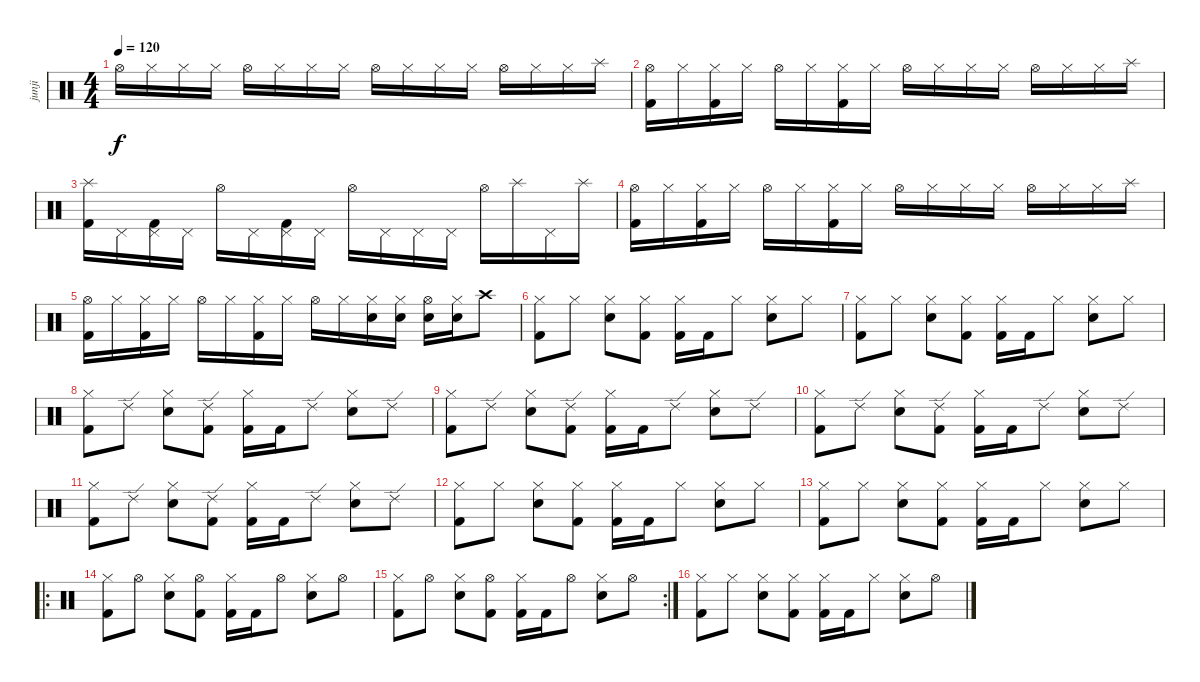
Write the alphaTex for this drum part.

\track ("junji" "junji") {instrument percussion}
\staff {score}
\articulation defaults
\ts (4 4)
\tempo 120
\clef neutral
\ks c "Hi-Hat (open)".16{dy f} "Hi-Hat (closed)".16 "Hi-Hat (closed)".16 "Hi-Hat (closed)".16 "Hi-Hat (open)".16 "Hi-Hat (closed)".16 "Hi-Hat (closed)".16 "Hi-Hat (closed)".16 "Hi-Hat (open)".16 "Hi-Hat (closed)".16 "Hi-Hat (closed)".16 "Hi-Hat (closed)".16 "Hi-Hat (open)".16 "Hi-Hat (closed)".16 "Hi-Hat (closed)".16 "Splash (hit)".16
|
("Hi-Hat (open)" "Kick (hit) 2").16 "Hi-Hat (closed)".16 ("Hi-Hat (closed)" "Kick (hit) 2").16 "Hi-Hat (closed)".16 "Hi-Hat (open)".16 "Hi-Hat (closed)".16 ("Hi-Hat (closed)" "Kick (hit) 2").16 "Hi-Hat (closed)".16 "Hi-Hat (open)".16 "Hi-Hat (closed)".16 "Hi-Hat (closed)".16 "Hi-Hat (closed)".16 "Hi-Hat (open)".16 "Hi-Hat (closed)".16 "Hi-Hat (closed)".16 "Splash (hit)".16 |
("Splash (hit)" "Kick (hit) 2").16 "Pedal Hi-Hat (hit)".16 ("Pedal Hi-Hat (hit)" "Kick (hit) 2").16 "Pedal Hi-Hat (hit)".16 "Hi-Hat (open)".16 "Pedal Hi-Hat (hit)".16 ("Pedal Hi-Hat (hit)" "Kick (hit) 2").16 "Pedal Hi-Hat (hit)".16 "Hi-Hat (open)".16 "Pedal Hi-Hat (hit)".16 "Pedal Hi-Hat (hit)".16 "Pedal Hi-Hat (hit)".16 "Hi-Hat (open)".16 "Splash (hit)".16 "Pedal Hi-Hat (hit)".16 "Splash (hit)".16 |
("Hi-Hat (open)" "Kick (hit) 2").16 "Hi-Hat (closed)".16 ("Hi-Hat (closed)" "Kick (hit) 2").16 "Hi-Hat (closed)".16 "Hi-Hat (open)".16 "Hi-Hat (closed)".16 ("Hi-Hat (closed)" "Kick (hit) 2").16 "Hi-Hat (closed)".16 "Hi-Hat (open)".16 "Hi-Hat (closed)".16 "Hi-Hat (closed)".16 "Hi-Hat (closed)".16 "Hi-Hat (open)".16 "Hi-Hat (closed)".16 "Hi-Hat (closed)".16 "Splash (hit)".16 |
("Hi-Hat (open)" "Kick (hit) 2").16 "Hi-Hat (closed)".16 ("Hi-Hat (closed)" "Kick (hit) 2").16 "Hi-Hat (closed)".16 "Hi-Hat (open)".16 "Hi-Hat (closed)".16 ("Hi-Hat (closed)" "Kick (hit) 2").16 "Hi-Hat (closed)".16 "Hi-Hat (open)".16 "Hi-Hat (closed)".16 ("Hi-Hat (closed)" "Snare (hit) 2").16 ("Hi-Hat (closed)" "Snare (hit) 2").16 ("Hi-Hat (open)" "Snare (hit) 2").16 ("Hi-Hat (closed)" "Snare (hit) 2").16 "Crash high (hit)".8 |
("Hi-Hat (closed)" "Kick (hit) 2").8 "Hi-Hat (closed)".8 ("Hi-Hat (closed)" "Snare (hit) 2").8 ("Hi-Hat (closed)" "Kick (hit) 2").8 ("Hi-Hat (closed)" "Kick (hit) 2"{x}).16 "Kick (hit) 2".16 "Hi-Hat (closed)".8 ("Hi-Hat (closed)" "Snare (hit) 2").8 "Hi-Hat (closed)".8 |
("Hi-Hat (closed)" "Kick (hit) 2").8 "Hi-Hat (closed)".8 ("Hi-Hat (closed)" "Snare (hit) 2").8 ("Hi-Hat (closed)" "Kick (hit) 2").8 ("Hi-Hat (closed)" "Kick (hit) 2"{x}).16 "Kick (hit) 2".16 "Hi-Hat (closed)".8 ("Hi-Hat (closed)" "Snare (hit) 2").8 "Hi-Hat (closed)".8 |
("Hi-Hat (closed)" "Kick (hit) 2").8 "Ride (edge) 2".8 ("Hi-Hat (closed)" "Snare (hit) 2").8 ("Ride (edge) 2" "Kick (hit) 2").8 ("Hi-Hat (closed)" "Kick (hit) 2"{x}).16 "Kick (hit) 2".16 "Ride (edge) 2".8 ("Hi-Hat (closed)" "Snare (hit) 2").8 "Ride (edge) 2".8 |
("Hi-Hat (closed)" "Kick (hit) 2").8 "Ride (edge) 2".8 ("Hi-Hat (closed)" "Snare (hit) 2").8 ("Ride (edge) 2" "Kick (hit) 2").8 ("Hi-Hat (closed)" "Kick (hit) 2"{x}).16 "Kick (hit) 2".16 "Ride (edge) 2".8 ("Hi-Hat (closed)" "Snare (hit) 2").8 "Ride (edge) 2".8 |
("Hi-Hat (closed)" "Kick (hit) 2").8 "Ride (edge) 2".8 ("Hi-Hat (closed)" "Snare (hit) 2").8 ("Ride (edge) 2" "Kick (hit) 2").8 ("Hi-Hat (closed)" "Kick (hit) 2"{x}).16 "Kick (hit) 2".16 "Ride (edge) 2".8 ("Hi-Hat (closed)" "Snare (hit) 2").8 "Ride (edge) 2".8 |
("Hi-Hat (closed)" "Kick (hit) 2").8 "Ride (edge) 2".8 ("Hi-Hat (closed)" "Snare (hit) 2").8 ("Ride (edge) 2" "Kick (hit) 2").8 ("Hi-Hat (closed)" "Kick (hit) 2"{x}).16 "Kick (hit) 2".16 "Ride (edge) 2".8 ("Hi-Hat (closed)" "Snare (hit) 2").8 "Ride (edge) 2".8 |
("Hi-Hat (closed)" "Kick (hit) 2").8 "Hi-Hat (closed)".8 ("Hi-Hat (closed)" "Snare (hit) 2").8 ("Hi-Hat (closed)" "Kick (hit) 2").8 ("Hi-Hat (closed)" "Kick (hit) 2"{x}).16 "Kick (hit) 2".16 "Hi-Hat (closed)".8 ("Hi-Hat (closed)" "Snare (hit) 2").8 "Hi-Hat (closed)".8 |
("Hi-Hat (closed)" "Kick (hit) 2").8 "Hi-Hat (closed)".8 ("Hi-Hat (closed)" "Snare (hit) 2").8 ("Hi-Hat (closed)" "Kick (hit) 2").8 ("Hi-Hat (closed)" "Kick (hit) 2"{x}).16 "Kick (hit) 2".16 "Hi-Hat (closed)".8 ("Hi-Hat (closed)" "Snare (hit) 2").8 "Hi-Hat (closed)".8 |
\ro
("Hi-Hat (closed)" "Kick (hit) 2").8 "Hi-Hat (open)".8 ("Hi-Hat (closed)" "Snare (hit) 2").8 ("Hi-Hat (open)" "Kick (hit) 2").8 ("Hi-Hat (closed)" "Kick (hit) 2"{x}).16 "Kick (hit) 2".16 "Hi-Hat (open)".8 ("Hi-Hat (closed)" "Snare (hit) 2").8 "Hi-Hat (open)".8 |
\rc 2
("Hi-Hat (closed)" "Kick (hit) 2").8 "Hi-Hat (open)".8 ("Hi-Hat (closed)" "Snare (hit) 2").8 ("Hi-Hat (open)" "Kick (hit) 2").8 ("Hi-Hat (closed)" "Kick (hit) 2"{x}).16 "Kick (hit) 2".16 "Hi-Hat (open)".8 ("Hi-Hat (closed)" "Snare (hit) 2").8 "Hi-Hat (open)".8 |
("Hi-Hat (closed)" "Kick (hit) 2").8 "Hi-Hat (closed)".8 ("Hi-Hat (closed)" "Snare (hit) 2").8 ("Hi-Hat (closed)" "Kick (hit) 2").8 ("Hi-Hat (closed)" "Kick (hit) 2"{x}).16 "Kick (hit) 2".16 "Hi-Hat (closed)".8 ("Hi-Hat (closed)" "Snare (hit) 2").8 "Hi-Hat (open)".8
